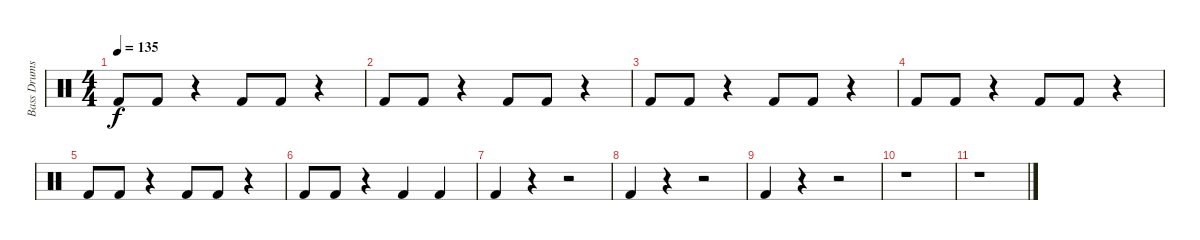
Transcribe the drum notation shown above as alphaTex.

\track ("Bass Drums" "Bass Drums") {instrument percussion}
\staff {score}
\articulation defaults
\ts (4 4)
\tempo 135
\clef neutral
\ks c "Kick (hit) 2".8{dy f} "Kick (hit) 2".8
r.4 "Kick (hit) 2".8 "Kick (hit) 2".8 r.4 |
"Kick (hit) 2".8 "Kick (hit) 2".8 r.4 "Kick (hit) 2".8 "Kick (hit) 2".8 r.4 |
"Kick (hit) 2".8 "Kick (hit) 2".8 r.4 "Kick (hit) 2".8 "Kick (hit) 2".8 r.4 |
"Kick (hit) 2".8 "Kick (hit) 2".8 r.4 "Kick (hit) 2".8 "Kick (hit) 2".8 r.4 |
"Kick (hit) 2".8 "Kick (hit) 2".8 r.4 "Kick (hit) 2".8 "Kick (hit) 2".8 r.4 |
"Kick (hit) 2".8 "Kick (hit) 2".8 r.4 "Kick (hit) 2".4 "Kick (hit) 2".4 |
"Kick (hit) 2".4 r.4 r.2 |
"Kick (hit) 2".4 r.4 r.2 |
"Kick (hit) 2".4 r.4 r.2 |
r.1 |
r.1
